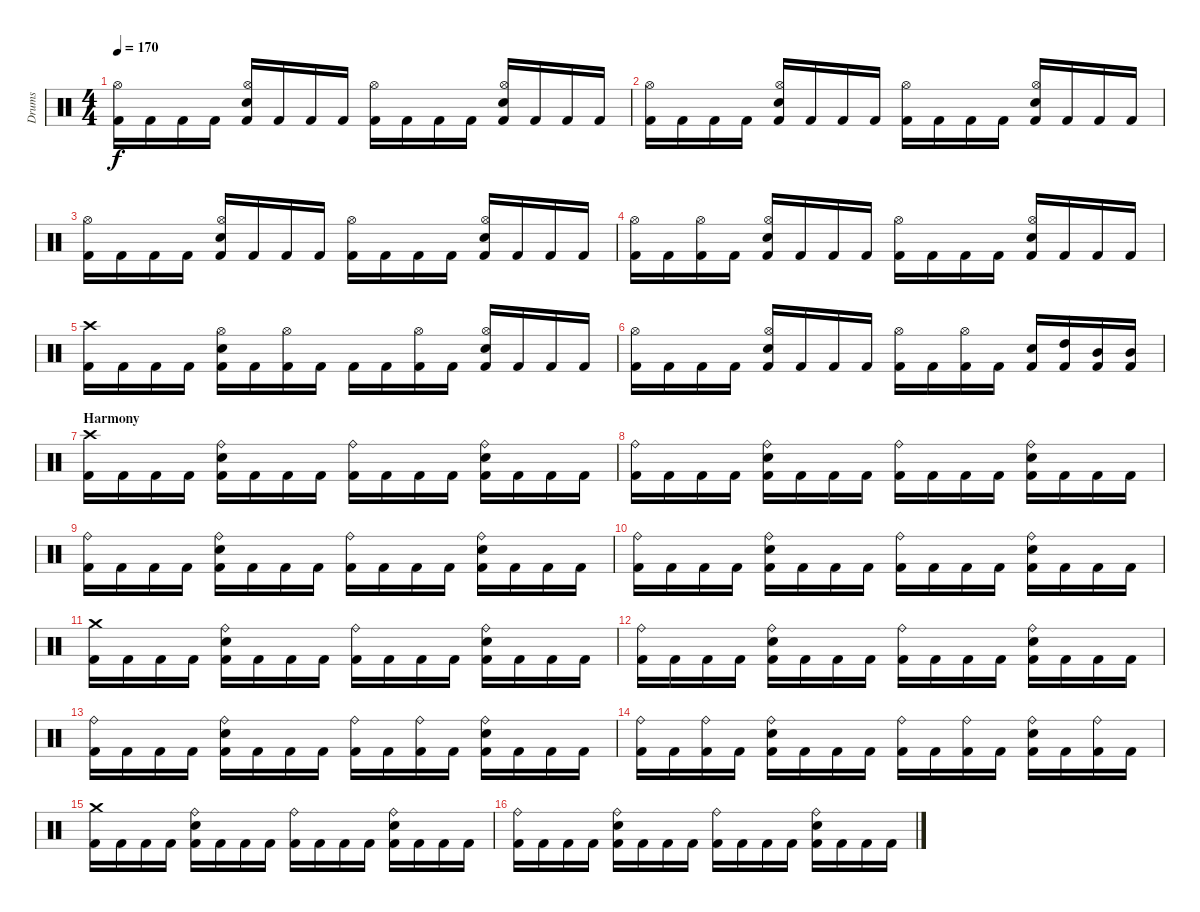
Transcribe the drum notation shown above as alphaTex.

\track ("Drums" "Drums") {instrument percussion}
\staff {score}
\articulation defaults
\ts (4 4)
\tempo 170
\clef neutral
\ks c
("Kick (hit) 2" "Hi-Hat (open)").16{dy f} "Kick (hit) 2".16 "Kick (hit) 2".16 "Kick (hit) 2".16 ("Kick (hit) 2" "Snare (hit) 2" "Hi-Hat (open)").16 "Kick (hit) 2".16 "Kick (hit) 2".16 "Kick (hit) 2".16 ("Kick (hit) 2" "Hi-Hat (open)").16 "Kick (hit) 2".16 "Kick (hit) 2".16 "Kick (hit) 2".16 ("Kick (hit) 2" "Snare (hit) 2" "Hi-Hat (open)").16 "Kick (hit) 2".16 "Kick (hit) 2".16 "Kick (hit) 2".16 |
("Kick (hit) 2" "Hi-Hat (open)").16 "Kick (hit) 2".16 "Kick (hit) 2".16 "Kick (hit) 2".16 ("Kick (hit) 2" "Snare (hit) 2" "Hi-Hat (open)").16 "Kick (hit) 2".16 "Kick (hit) 2".16 "Kick (hit) 2".16 ("Kick (hit) 2" "Hi-Hat (open)").16 "Kick (hit) 2".16 "Kick (hit) 2".16 "Kick (hit) 2".16 ("Kick (hit) 2" "Snare (hit) 2" "Hi-Hat (open)").16 "Kick (hit) 2".16 "Kick (hit) 2".16 "Kick (hit) 2".16 |
("Kick (hit) 2" "Hi-Hat (open)").16 "Kick (hit) 2".16 "Kick (hit) 2".16 "Kick (hit) 2".16 ("Kick (hit) 2" "Snare (hit) 2" "Hi-Hat (open)").16 "Kick (hit) 2".16 "Kick (hit) 2".16 "Kick (hit) 2".16 ("Kick (hit) 2" "Hi-Hat (open)").16 "Kick (hit) 2".16 "Kick (hit) 2".16 "Kick (hit) 2".16 ("Kick (hit) 2" "Snare (hit) 2" "Hi-Hat (open)").16 "Kick (hit) 2".16 "Kick (hit) 2".16 "Kick (hit) 2".16 |
("Kick (hit) 2" "Hi-Hat (open)").16 "Kick (hit) 2".16 ("Kick (hit) 2" "Hi-Hat (open)").16 "Kick (hit) 2".16 ("Kick (hit) 2" "Snare (hit) 2" "Hi-Hat (open)").16 "Kick (hit) 2".16 "Kick (hit) 2".16 "Kick (hit) 2".16 ("Kick (hit) 2" "Hi-Hat (open)").16 "Kick (hit) 2".16 "Kick (hit) 2".16 "Kick (hit) 2".16 ("Kick (hit) 2" "Snare (hit) 2" "Hi-Hat (open)").16 "Kick (hit) 2".16 "Kick (hit) 2".16 "Kick (hit) 2".16 |
("Kick (hit) 2" "Crash high (hit)").16 "Kick (hit) 2".16 "Kick (hit) 2".16 "Kick (hit) 2".16 ("Kick (hit) 2" "Snare (hit) 2" "Hi-Hat (open)").16 "Kick (hit) 2".16 ("Kick (hit) 2" "Hi-Hat (open)").16 "Kick (hit) 2".16 "Kick (hit) 2".16 "Kick (hit) 2".16 ("Kick (hit) 2" "Hi-Hat (open)").16 "Kick (hit) 2".16 ("Kick (hit) 2" "Snare (hit) 2" "Hi-Hat (open)").16 "Kick (hit) 2".16 "Kick (hit) 2".16 "Kick (hit) 2".16 |
("Kick (hit) 2" "Hi-Hat (open)").16 "Kick (hit) 2".16 "Kick (hit) 2".16 "Kick (hit) 2".16 ("Kick (hit) 2" "Snare (hit) 2" "Hi-Hat (open)").16 "Kick (hit) 2".16 "Kick (hit) 2".16 "Kick (hit) 2".16 ("Kick (hit) 2" "Hi-Hat (open)").16 "Kick (hit) 2".16 ("Kick (hit) 2" "Hi-Hat (open)").16 "Kick (hit) 2".16 ("Kick (hit) 2" "Snare (hit) 2").16 ("Kick (hit) 2" "High Tom (hit)").16 ("Kick (hit) 2" "Mid Tom (hit)").16 ("Kick (hit) 2" "Mid Tom (hit)").16 |
\section ("" "Harmony")
("Kick (hit) 2" "Crash high (hit)").16 "Kick (hit) 2".16 "Kick (hit) 2".16 "Kick (hit) 2".16 ("Kick (hit) 2" "Snare (hit) 2" "Ride (bell)").16 "Kick (hit) 2".16 "Kick (hit) 2".16 "Kick (hit) 2".16 ("Kick (hit) 2" "Ride (bell)").16 "Kick (hit) 2".16 "Kick (hit) 2".16 "Kick (hit) 2".16 ("Kick (hit) 2" "Snare (hit) 2" "Ride (bell)").16 "Kick (hit) 2".16 "Kick (hit) 2".16 "Kick (hit) 2".16 |
("Kick (hit) 2" "Ride (bell)").16 "Kick (hit) 2".16 "Kick (hit) 2".16 "Kick (hit) 2".16 ("Kick (hit) 2" "Snare (hit) 2" "Ride (bell)").16 "Kick (hit) 2".16 "Kick (hit) 2".16 "Kick (hit) 2".16 ("Kick (hit) 2" "Ride (bell)").16 "Kick (hit) 2".16 "Kick (hit) 2".16 "Kick (hit) 2".16 ("Kick (hit) 2" "Snare (hit) 2" "Ride (bell)").16 "Kick (hit) 2".16 "Kick (hit) 2".16 "Kick (hit) 2".16 |
("Kick (hit) 2" "Ride (bell)").16 "Kick (hit) 2".16 "Kick (hit) 2".16 "Kick (hit) 2".16 ("Kick (hit) 2" "Snare (hit) 2" "Ride (bell)").16 "Kick (hit) 2".16 "Kick (hit) 2".16 "Kick (hit) 2".16 ("Kick (hit) 2" "Ride (bell)").16 "Kick (hit) 2".16 "Kick (hit) 2".16 "Kick (hit) 2".16 ("Kick (hit) 2" "Snare (hit) 2" "Ride (bell)").16 "Kick (hit) 2".16 "Kick (hit) 2".16 "Kick (hit) 2".16 |
("Kick (hit) 2" "Ride (bell)").16 "Kick (hit) 2".16 "Kick (hit) 2".16 "Kick (hit) 2".16 ("Kick (hit) 2" "Snare (hit) 2" "Ride (bell)").16 "Kick (hit) 2".16 "Kick (hit) 2".16 "Kick (hit) 2".16 ("Kick (hit) 2" "Ride (bell)").16 "Kick (hit) 2".16 "Kick (hit) 2".16 "Kick (hit) 2".16 ("Kick (hit) 2" "Snare (hit) 2" "Ride (bell)").16 "Kick (hit) 2".16 "Kick (hit) 2".16 "Kick (hit) 2".16 |
("Kick (hit) 2" "Crash medium (hit)").16 "Kick (hit) 2".16 "Kick (hit) 2".16 "Kick (hit) 2".16 ("Kick (hit) 2" "Snare (hit) 2" "Ride (bell)").16 "Kick (hit) 2".16 "Kick (hit) 2".16 "Kick (hit) 2".16 ("Kick (hit) 2" "Ride (bell)").16 "Kick (hit) 2".16 "Kick (hit) 2".16 "Kick (hit) 2".16 ("Kick (hit) 2" "Snare (hit) 2" "Ride (bell)").16 "Kick (hit) 2".16 "Kick (hit) 2".16 "Kick (hit) 2".16 |
("Kick (hit) 2" "Ride (bell)").16 "Kick (hit) 2".16 "Kick (hit) 2".16 "Kick (hit) 2".16 ("Kick (hit) 2" "Snare (hit) 2" "Ride (bell)").16 "Kick (hit) 2".16 "Kick (hit) 2".16 "Kick (hit) 2".16 ("Kick (hit) 2" "Ride (bell)").16 "Kick (hit) 2".16 "Kick (hit) 2".16 "Kick (hit) 2".16 ("Kick (hit) 2" "Snare (hit) 2" "Ride (bell)").16 "Kick (hit) 2".16 "Kick (hit) 2".16 "Kick (hit) 2".16 |
("Kick (hit) 2" "Ride (bell)").16 "Kick (hit) 2".16 "Kick (hit) 2".16 "Kick (hit) 2".16 ("Kick (hit) 2" "Snare (hit) 2" "Ride (bell)").16 "Kick (hit) 2".16 "Kick (hit) 2".16 "Kick (hit) 2".16 ("Kick (hit) 2" "Ride (bell)").16 "Kick (hit) 2".16 ("Kick (hit) 2" "Ride (bell)").16 "Kick (hit) 2".16 ("Kick (hit) 2" "Snare (hit) 2" "Ride (bell)").16 "Kick (hit) 2".16 "Kick (hit) 2".16 "Kick (hit) 2".16 |
("Kick (hit) 2" "Ride (bell)").16 "Kick (hit) 2".16 ("Kick (hit) 2" "Ride (bell)").16 "Kick (hit) 2".16 ("Kick (hit) 2" "Snare (hit) 2" "Ride (bell)").16 "Kick (hit) 2".16 "Kick (hit) 2".16 "Kick (hit) 2".16 ("Kick (hit) 2" "Ride (bell)").16 "Kick (hit) 2".16 ("Kick (hit) 2" "Ride (bell)").16 "Kick (hit) 2".16 ("Kick (hit) 2" "Snare (hit) 2" "Ride (bell)").16 "Kick (hit) 2".16 ("Kick (hit) 2" "Ride (bell)").16 "Kick (hit) 2".16 |
("Kick (hit) 2" "Crash medium (hit)").16 "Kick (hit) 2".16 "Kick (hit) 2".16 "Kick (hit) 2".16 ("Kick (hit) 2" "Snare (hit) 2" "Ride (bell)").16 "Kick (hit) 2".16 "Kick (hit) 2".16 "Kick (hit) 2".16 ("Kick (hit) 2" "Ride (bell)").16 "Kick (hit) 2".16 "Kick (hit) 2".16 "Kick (hit) 2".16 ("Kick (hit) 2" "Snare (hit) 2" "Ride (bell)").16 "Kick (hit) 2".16 "Kick (hit) 2".16 "Kick (hit) 2".16 |
("Kick (hit) 2" "Ride (bell)").16 "Kick (hit) 2".16 "Kick (hit) 2".16 "Kick (hit) 2".16 ("Kick (hit) 2" "Snare (hit) 2" "Ride (bell)").16 "Kick (hit) 2".16 "Kick (hit) 2".16 "Kick (hit) 2".16 ("Kick (hit) 2" "Ride (bell)").16 "Kick (hit) 2".16 "Kick (hit) 2".16 "Kick (hit) 2".16 ("Kick (hit) 2" "Snare (hit) 2" "Ride (bell)").16 "Kick (hit) 2".16 "Kick (hit) 2".16 "Kick (hit) 2".16
